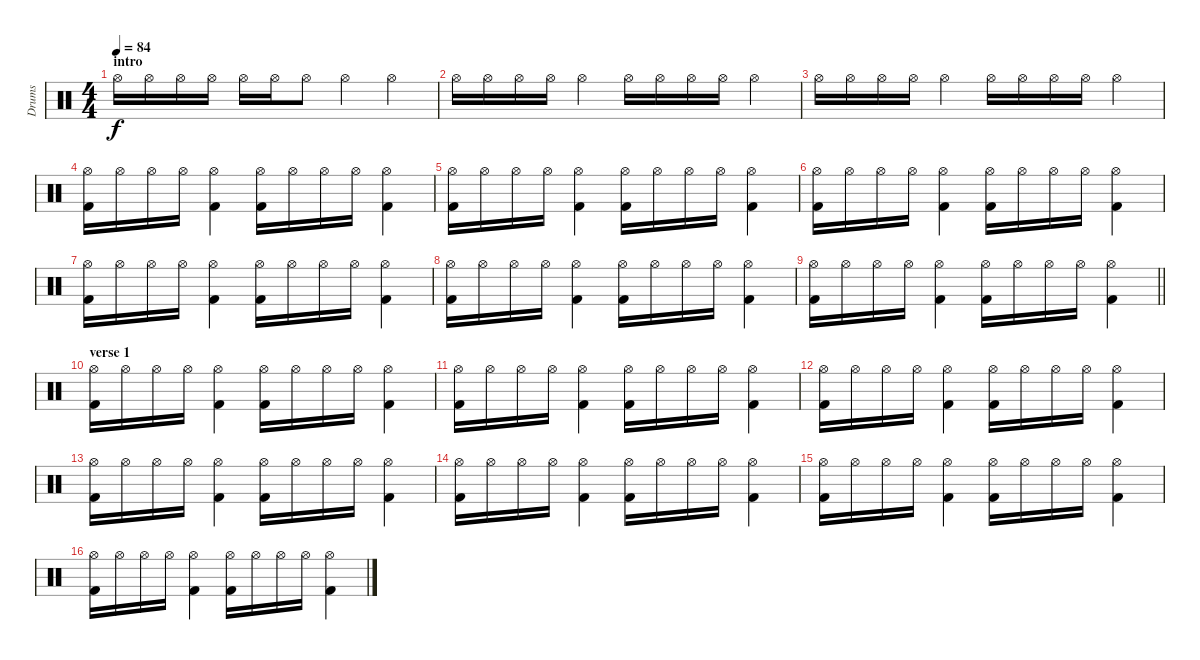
\track ("Drums" "Drums") {instrument percussion}
\staff {score}
\articulation defaults
\ts (4 4)
\section ("" "intro")
\tempo 84
\clef neutral
\ks c "Hi-Hat (open)".16{dy f} "Hi-Hat (open)".16 "Hi-Hat (open)".16 "Hi-Hat (open)".16 "Hi-Hat (open)".16 "Hi-Hat (open)".16 "Hi-Hat (open)".8 "Hi-Hat (open)".4 "Hi-Hat (open)".4
|
"Hi-Hat (open)".16 "Hi-Hat (open)".16 "Hi-Hat (open)".16 "Hi-Hat (open)".16 "Hi-Hat (open)".4 "Hi-Hat (open)".16 "Hi-Hat (open)".16 "Hi-Hat (open)".16 "Hi-Hat (open)".16 "Hi-Hat (open)".4 |
"Hi-Hat (open)".16 "Hi-Hat (open)".16 "Hi-Hat (open)".16 "Hi-Hat (open)".16 "Hi-Hat (open)".4 "Hi-Hat (open)".16 "Hi-Hat (open)".16 "Hi-Hat (open)".16 "Hi-Hat (open)".16 "Hi-Hat (open)".4 |
("Hi-Hat (open)" "Kick (hit) 2").16 "Hi-Hat (open)".16 "Hi-Hat (open)".16 "Hi-Hat (open)".16 ("Hi-Hat (open)" "Kick (hit) 2").4 ("Hi-Hat (open)" "Kick (hit) 2").16 "Hi-Hat (open)".16 "Hi-Hat (open)".16 "Hi-Hat (open)".16 ("Hi-Hat (open)" "Kick (hit) 2").4 |
("Hi-Hat (open)" "Kick (hit) 2").16 "Hi-Hat (open)".16 "Hi-Hat (open)".16 "Hi-Hat (open)".16 ("Hi-Hat (open)" "Kick (hit) 2").4 ("Hi-Hat (open)" "Kick (hit) 2").16 "Hi-Hat (open)".16 "Hi-Hat (open)".16 "Hi-Hat (open)".16 ("Hi-Hat (open)" "Kick (hit) 2").4 |
("Hi-Hat (open)" "Kick (hit) 2").16 "Hi-Hat (open)".16 "Hi-Hat (open)".16 "Hi-Hat (open)".16 ("Hi-Hat (open)" "Kick (hit) 2").4 ("Hi-Hat (open)" "Kick (hit) 2").16 "Hi-Hat (open)".16 "Hi-Hat (open)".16 "Hi-Hat (open)".16 ("Hi-Hat (open)" "Kick (hit) 2").4 |
("Hi-Hat (open)" "Kick (hit) 2").16 "Hi-Hat (open)".16 "Hi-Hat (open)".16 "Hi-Hat (open)".16 ("Hi-Hat (open)" "Kick (hit) 2").4 ("Hi-Hat (open)" "Kick (hit) 2").16 "Hi-Hat (open)".16 "Hi-Hat (open)".16 "Hi-Hat (open)".16 ("Hi-Hat (open)" "Kick (hit) 2").4 |
("Hi-Hat (open)" "Kick (hit) 2").16 "Hi-Hat (open)".16 "Hi-Hat (open)".16 "Hi-Hat (open)".16 ("Hi-Hat (open)" "Kick (hit) 2").4 ("Hi-Hat (open)" "Kick (hit) 2").16 "Hi-Hat (open)".16 "Hi-Hat (open)".16 "Hi-Hat (open)".16 ("Hi-Hat (open)" "Kick (hit) 2").4 |
\barLineRight lightlight
("Hi-Hat (open)" "Kick (hit) 2").16 "Hi-Hat (open)".16 "Hi-Hat (open)".16 "Hi-Hat (open)".16 ("Hi-Hat (open)" "Kick (hit) 2").4 ("Hi-Hat (open)" "Kick (hit) 2").16 "Hi-Hat (open)".16 "Hi-Hat (open)".16 "Hi-Hat (open)".16 ("Hi-Hat (open)" "Kick (hit) 2").4 |
\section ("" "verse 1")
("Hi-Hat (open)" "Kick (hit) 2").16 "Hi-Hat (open)".16 "Hi-Hat (open)".16 "Hi-Hat (open)".16 ("Hi-Hat (open)" "Kick (hit) 2").4 ("Hi-Hat (open)" "Kick (hit) 2").16 "Hi-Hat (open)".16 "Hi-Hat (open)".16 "Hi-Hat (open)".16 ("Hi-Hat (open)" "Kick (hit) 2").4 |
("Hi-Hat (open)" "Kick (hit) 2").16 "Hi-Hat (open)".16 "Hi-Hat (open)".16 "Hi-Hat (open)".16 ("Hi-Hat (open)" "Kick (hit) 2").4 ("Hi-Hat (open)" "Kick (hit) 2").16 "Hi-Hat (open)".16 "Hi-Hat (open)".16 "Hi-Hat (open)".16 ("Hi-Hat (open)" "Kick (hit) 2").4 |
("Hi-Hat (open)" "Kick (hit) 2").16 "Hi-Hat (open)".16 "Hi-Hat (open)".16 "Hi-Hat (open)".16 ("Hi-Hat (open)" "Kick (hit) 2").4 ("Hi-Hat (open)" "Kick (hit) 2").16 "Hi-Hat (open)".16 "Hi-Hat (open)".16 "Hi-Hat (open)".16 ("Hi-Hat (open)" "Kick (hit) 2").4 |
("Hi-Hat (open)" "Kick (hit) 2").16 "Hi-Hat (open)".16 "Hi-Hat (open)".16 "Hi-Hat (open)".16 ("Hi-Hat (open)" "Kick (hit) 2").4 ("Hi-Hat (open)" "Kick (hit) 2").16 "Hi-Hat (open)".16 "Hi-Hat (open)".16 "Hi-Hat (open)".16 ("Hi-Hat (open)" "Kick (hit) 2").4 |
("Hi-Hat (open)" "Kick (hit) 2").16 "Hi-Hat (open)".16 "Hi-Hat (open)".16 "Hi-Hat (open)".16 ("Hi-Hat (open)" "Kick (hit) 2").4 ("Hi-Hat (open)" "Kick (hit) 2").16 "Hi-Hat (open)".16 "Hi-Hat (open)".16 "Hi-Hat (open)".16 ("Hi-Hat (open)" "Kick (hit) 2").4 |
("Hi-Hat (open)" "Kick (hit) 2").16 "Hi-Hat (open)".16 "Hi-Hat (open)".16 "Hi-Hat (open)".16 ("Hi-Hat (open)" "Kick (hit) 2").4 ("Hi-Hat (open)" "Kick (hit) 2").16 "Hi-Hat (open)".16 "Hi-Hat (open)".16 "Hi-Hat (open)".16 ("Hi-Hat (open)" "Kick (hit) 2").4 |
("Hi-Hat (open)" "Kick (hit) 2").16 "Hi-Hat (open)".16 "Hi-Hat (open)".16 "Hi-Hat (open)".16 ("Hi-Hat (open)" "Kick (hit) 2").4 ("Hi-Hat (open)" "Kick (hit) 2").16 "Hi-Hat (open)".16 "Hi-Hat (open)".16 "Hi-Hat (open)".16 ("Hi-Hat (open)" "Kick (hit) 2").4
